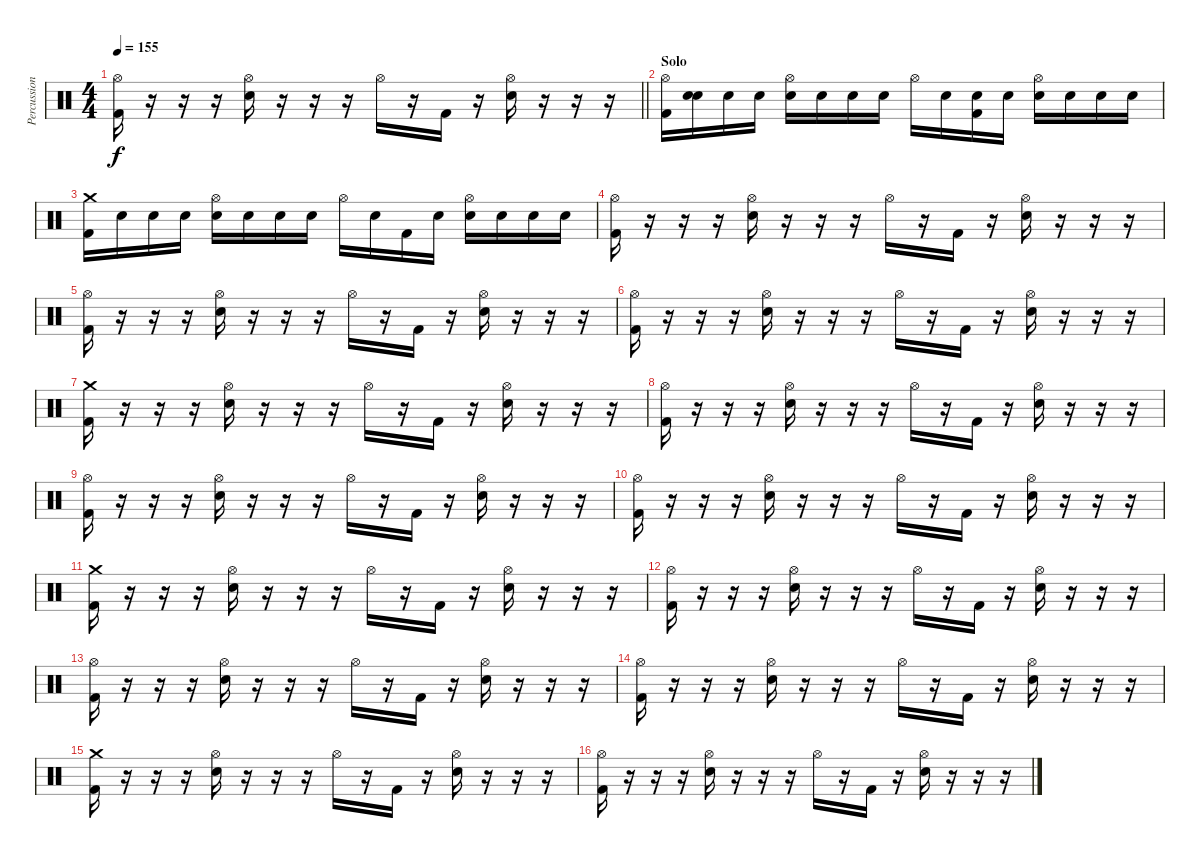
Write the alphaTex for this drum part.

\track ("Percussion" "Percussion") {instrument percussion}
\staff {score}
\articulation defaults
\ts (4 4)
\tempo 155
\clef neutral
\barLineRight lightlight
\ks c
("Hi-Hat (open)" "Kick (hit) 2").16{dy f} r.16 r.16 r.16 ("Electric Snare (hit)" "Hi-Hat (open)").16 r.16 r.16 r.16 "Hi-Hat (open)".16 r.16 "Kick (hit) 2".16 r.16 ("Electric Snare (hit)" "Hi-Hat (open)").16 r.16 r.16 r.16 |
\section ("" "Solo")
("Hi-Hat (open)" "Kick (hit) 2").16 ("Snare (hit)" "Snare (hit)").16 "Snare (hit)".16 "Snare (hit)".16 ("Electric Snare (hit)" "Hi-Hat (open)").16 "Snare (hit)".16 "Electric Snare (hit)".16 "Electric Snare (hit)".16 "Hi-Hat (open)".16 "Electric Snare (hit)".16 ("Electric Snare (hit)" "Kick (hit) 2").16 "Electric Snare (hit)".16 ("Electric Snare (hit)" "Hi-Hat (open)").16 "Electric Snare (hit)".16 "Snare (hit)".16 "Electric Snare (hit)".16 |
("Crash medium (hit)" "Kick (hit) 2").16 "Snare (hit)".16 "Snare (hit)".16 "Snare (hit)".16 ("Electric Snare (hit)" "Hi-Hat (open)").16 "Snare (hit)".16 "Snare (hit)".16 "Snare (hit)".16 "Hi-Hat (open)".16 "Snare (hit)".16 "Kick (hit) 2".16 "Snare (hit)".16 ("Electric Snare (hit)" "Hi-Hat (open)").16 "Snare (hit)".16 "Snare (hit)".16 "Snare (hit)".16 |
("Hi-Hat (open)" "Kick (hit) 2").16 r.16 r.16 r.16 ("Electric Snare (hit)" "Hi-Hat (open)").16 r.16 r.16 r.16 "Hi-Hat (open)".16 r.16 "Kick (hit) 2".16 r.16 ("Electric Snare (hit)" "Hi-Hat (open)").16 r.16 r.16 r.16 |
("Hi-Hat (open)" "Kick (hit) 2").16 r.16 r.16 r.16 ("Electric Snare (hit)" "Hi-Hat (open)").16 r.16 r.16 r.16 "Hi-Hat (open)".16 r.16 "Kick (hit) 2".16 r.16 ("Electric Snare (hit)" "Hi-Hat (open)").16 r.16 r.16 r.16 |
("Hi-Hat (open)" "Kick (hit) 2").16 r.16 r.16 r.16 ("Electric Snare (hit)" "Hi-Hat (open)").16 r.16 r.16 r.16 "Hi-Hat (open)".16 r.16 "Kick (hit) 2".16 r.16 ("Electric Snare (hit)" "Hi-Hat (open)").16 r.16 r.16 r.16 |
("Crash medium (hit)" "Kick (hit) 2").16 r.16 r.16 r.16 ("Electric Snare (hit)" "Hi-Hat (open)").16 r.16 r.16 r.16 "Hi-Hat (open)".16 r.16 "Kick (hit) 2".16 r.16 ("Electric Snare (hit)" "Hi-Hat (open)").16 r.16 r.16 r.16 |
("Hi-Hat (open)" "Kick (hit) 2").16 r.16 r.16 r.16 ("Electric Snare (hit)" "Hi-Hat (open)").16 r.16 r.16 r.16 "Hi-Hat (open)".16 r.16 "Kick (hit) 2".16 r.16 ("Electric Snare (hit)" "Hi-Hat (open)").16 r.16 r.16 r.16 |
("Hi-Hat (open)" "Kick (hit) 2").16 r.16 r.16 r.16 ("Electric Snare (hit)" "Hi-Hat (open)").16 r.16 r.16 r.16 "Hi-Hat (open)".16 r.16 "Kick (hit) 2".16 r.16 ("Electric Snare (hit)" "Hi-Hat (open)").16 r.16 r.16 r.16 |
("Hi-Hat (open)" "Kick (hit) 2").16 r.16 r.16 r.16 ("Electric Snare (hit)" "Hi-Hat (open)").16 r.16 r.16 r.16 "Hi-Hat (open)".16 r.16 "Kick (hit) 2".16 r.16 ("Electric Snare (hit)" "Hi-Hat (open)").16 r.16 r.16 r.16 |
("Crash medium (hit)" "Kick (hit) 2").16 r.16 r.16 r.16 ("Electric Snare (hit)" "Hi-Hat (open)").16 r.16 r.16 r.16 "Hi-Hat (open)".16 r.16 "Kick (hit) 2".16 r.16 ("Electric Snare (hit)" "Hi-Hat (open)").16 r.16 r.16 r.16 |
("Hi-Hat (open)" "Kick (hit) 2").16 r.16 r.16 r.16 ("Electric Snare (hit)" "Hi-Hat (open)").16 r.16 r.16 r.16 "Hi-Hat (open)".16 r.16 "Kick (hit) 2".16 r.16 ("Electric Snare (hit)" "Hi-Hat (open)").16 r.16 r.16 r.16 |
("Hi-Hat (open)" "Kick (hit) 2").16 r.16 r.16 r.16 ("Electric Snare (hit)" "Hi-Hat (open)").16 r.16 r.16 r.16 "Hi-Hat (open)".16 r.16 "Kick (hit) 2".16 r.16 ("Electric Snare (hit)" "Hi-Hat (open)").16 r.16 r.16 r.16 |
("Hi-Hat (open)" "Kick (hit) 2").16 r.16 r.16 r.16 ("Electric Snare (hit)" "Hi-Hat (open)").16 r.16 r.16 r.16 "Hi-Hat (open)".16 r.16 "Kick (hit) 2".16 r.16 ("Electric Snare (hit)" "Hi-Hat (open)").16 r.16 r.16 r.16 |
("Crash medium (hit)" "Kick (hit) 2").16 r.16 r.16 r.16 ("Electric Snare (hit)" "Hi-Hat (open)").16 r.16 r.16 r.16 "Hi-Hat (open)".16 r.16 "Kick (hit) 2".16 r.16 ("Electric Snare (hit)" "Hi-Hat (open)").16 r.16 r.16 r.16 |
("Hi-Hat (open)" "Kick (hit) 2").16 r.16 r.16 r.16 ("Electric Snare (hit)" "Hi-Hat (open)").16 r.16 r.16 r.16 "Hi-Hat (open)".16 r.16 "Kick (hit) 2".16 r.16 ("Electric Snare (hit)" "Hi-Hat (open)").16 r.16 r.16 r.16
